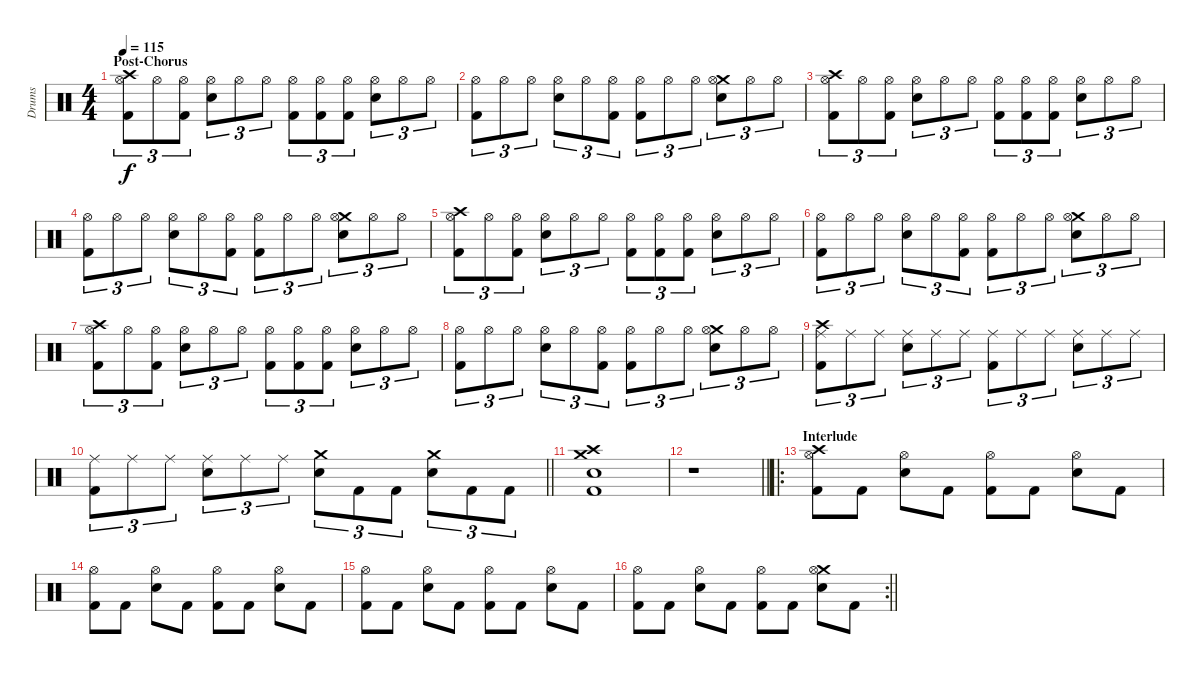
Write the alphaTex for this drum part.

\track ("Drums" "Drums") {instrument percussion}
\staff {score}
\articulation defaults
\ts (4 4)
\section ("" "Post-Chorus")
\tempo 115
\clef neutral
\ks c
("Crash high (hit)" "Hi-Hat (open)" "Kick (hit) 2").8{tu (3 2) dy f} "Hi-Hat (open)".8{tu (3 2)} ("Hi-Hat (open)" "Kick (hit) 2").8{tu (3 2)} ("Hi-Hat (open)" "Snare (hit) 2").8{tu (3 2)} "Hi-Hat (open)".8{tu (3 2)} "Hi-Hat (open)".8{tu (3 2)} ("Hi-Hat (open)" "Kick (hit) 2").8{tu (3 2)} ("Hi-Hat (open)" "Kick (hit) 2").8{tu (3 2)} ("Hi-Hat (open)" "Kick (hit) 2").8{tu (3 2)} ("Hi-Hat (open)" "Snare (hit) 2").8{tu (3 2)} "Hi-Hat (open)".8{tu (3 2)} "Hi-Hat (open)".8{tu (3 2)} |
("Hi-Hat (open)" "Kick (hit) 2").8{tu (3 2)} "Hi-Hat (open)".8{tu (3 2)} "Hi-Hat (open)".8{tu (3 2)} ("Hi-Hat (open)" "Snare (hit) 2").8{tu (3 2)} "Hi-Hat (open)".8{tu (3 2)} ("Hi-Hat (open)" "Kick (hit) 2").8{tu (3 2)} ("Hi-Hat (open)" "Kick (hit) 2").8{tu (3 2)} "Hi-Hat (open)".8{tu (3 2)} "Hi-Hat (open)".8{tu (3 2)} ("Crash medium (hit)" "Hi-Hat (open)" "Snare (hit) 2").8{tu (3 2)} "Hi-Hat (open)".8{tu (3 2)} "Hi-Hat (open)".8{tu (3 2)} |
("Crash high (hit)" "Hi-Hat (open)" "Kick (hit) 2").8{tu (3 2)} "Hi-Hat (open)".8{tu (3 2)} ("Hi-Hat (open)" "Kick (hit) 2").8{tu (3 2)} ("Hi-Hat (open)" "Snare (hit) 2").8{tu (3 2)} "Hi-Hat (open)".8{tu (3 2)} "Hi-Hat (open)".8{tu (3 2)} ("Hi-Hat (open)" "Kick (hit) 2").8{tu (3 2)} ("Hi-Hat (open)" "Kick (hit) 2").8{tu (3 2)} ("Hi-Hat (open)" "Kick (hit) 2").8{tu (3 2)} ("Hi-Hat (open)" "Snare (hit) 2").8{tu (3 2)} "Hi-Hat (open)".8{tu (3 2)} "Hi-Hat (open)".8{tu (3 2)} |
("Hi-Hat (open)" "Kick (hit) 2").8{tu (3 2)} "Hi-Hat (open)".8{tu (3 2)} "Hi-Hat (open)".8{tu (3 2)} ("Hi-Hat (open)" "Snare (hit) 2").8{tu (3 2)} "Hi-Hat (open)".8{tu (3 2)} ("Hi-Hat (open)" "Kick (hit) 2").8{tu (3 2)} ("Hi-Hat (open)" "Kick (hit) 2").8{tu (3 2)} "Hi-Hat (open)".8{tu (3 2)} "Hi-Hat (open)".8{tu (3 2)} ("Crash medium (hit)" "Hi-Hat (open)" "Snare (hit) 2").8{tu (3 2)} "Hi-Hat (open)".8{tu (3 2)} "Hi-Hat (open)".8{tu (3 2)} |
("Crash high (hit)" "Hi-Hat (open)" "Kick (hit) 2").8{tu (3 2)} "Hi-Hat (open)".8{tu (3 2)} ("Hi-Hat (open)" "Kick (hit) 2").8{tu (3 2)} ("Hi-Hat (open)" "Snare (hit) 2").8{tu (3 2)} "Hi-Hat (open)".8{tu (3 2)} "Hi-Hat (open)".8{tu (3 2)} ("Hi-Hat (open)" "Kick (hit) 2").8{tu (3 2)} ("Hi-Hat (open)" "Kick (hit) 2").8{tu (3 2)} ("Hi-Hat (open)" "Kick (hit) 2").8{tu (3 2)} ("Hi-Hat (open)" "Snare (hit) 2").8{tu (3 2)} "Hi-Hat (open)".8{tu (3 2)} "Hi-Hat (open)".8{tu (3 2)} |
("Hi-Hat (open)" "Kick (hit) 2").8{tu (3 2)} "Hi-Hat (open)".8{tu (3 2)} "Hi-Hat (open)".8{tu (3 2)} ("Hi-Hat (open)" "Snare (hit) 2").8{tu (3 2)} "Hi-Hat (open)".8{tu (3 2)} ("Hi-Hat (open)" "Kick (hit) 2").8{tu (3 2)} ("Hi-Hat (open)" "Kick (hit) 2").8{tu (3 2)} "Hi-Hat (open)".8{tu (3 2)} "Hi-Hat (open)".8{tu (3 2)} ("Crash medium (hit)" "Hi-Hat (open)" "Snare (hit) 2").8{tu (3 2)} "Hi-Hat (open)".8{tu (3 2)} "Hi-Hat (open)".8{tu (3 2)} |
("Crash high (hit)" "Hi-Hat (open)" "Kick (hit) 2").8{tu (3 2)} "Hi-Hat (open)".8{tu (3 2)} ("Hi-Hat (open)" "Kick (hit) 2").8{tu (3 2)} ("Hi-Hat (open)" "Snare (hit) 2").8{tu (3 2)} "Hi-Hat (open)".8{tu (3 2)} "Hi-Hat (open)".8{tu (3 2)} ("Hi-Hat (open)" "Kick (hit) 2").8{tu (3 2)} ("Hi-Hat (open)" "Kick (hit) 2").8{tu (3 2)} ("Hi-Hat (open)" "Kick (hit) 2").8{tu (3 2)} ("Hi-Hat (open)" "Snare (hit) 2").8{tu (3 2)} "Hi-Hat (open)".8{tu (3 2)} "Hi-Hat (open)".8{tu (3 2)} |
("Hi-Hat (open)" "Kick (hit) 2").8{tu (3 2)} "Hi-Hat (open)".8{tu (3 2)} "Hi-Hat (open)".8{tu (3 2)} ("Hi-Hat (open)" "Snare (hit) 2").8{tu (3 2)} "Hi-Hat (open)".8{tu (3 2)} ("Hi-Hat (open)" "Kick (hit) 2").8{tu (3 2)} ("Hi-Hat (open)" "Kick (hit) 2").8{tu (3 2)} "Hi-Hat (open)".8{tu (3 2)} "Hi-Hat (open)".8{tu (3 2)} ("Crash medium (hit)" "Hi-Hat (open)" "Snare (hit) 2").8{tu (3 2)} "Hi-Hat (open)".8{tu (3 2)} "Hi-Hat (open)".8{tu (3 2)} |
("Crash high (hit)" "Ride (middle)" "Kick (hit) 2").8{tu (3 2)} "Ride (middle)".8{tu (3 2)} "Ride (middle)".8{tu (3 2)} ("Ride (middle)" "Snare (hit) 2").8{tu (3 2)} "Ride (middle)".8{tu (3 2)} "Ride (middle)".8{tu (3 2)} ("Ride (middle)" "Kick (hit) 2").8{tu (3 2)} "Ride (middle)".8{tu (3 2)} "Ride (middle)".8{tu (3 2)} ("Ride (middle)" "Snare (hit) 2").8{tu (3 2)} "Ride (middle)".8{tu (3 2)} "Ride (middle)".8{tu (3 2)} |
\barLineRight lightlight
("Ride (middle)" "Kick (hit) 2").8{tu (3 2)} "Ride (middle)".8{tu (3 2)} "Ride (middle)".8{tu (3 2)} ("Ride (middle)" "Snare (hit) 2").8{tu (3 2)} "Ride (middle)".8{tu (3 2)} "Ride (middle)".8{tu (3 2)} ("Crash medium (hit)" "Snare (hit) 2").8{tu (3 2)} "Kick (hit) 2".8{tu (3 2)} "Kick (hit) 2".8{tu (3 2)} ("Crash medium (hit)" "Snare (hit) 2").8{tu (3 2)} "Kick (hit) 2".8{tu (3 2)} "Kick (hit) 2".8{tu (3 2)} |
("Crash medium (hit)" "Crash high (hit)" "Snare (hit) 2" "Kick (hit) 2").1 |
\barLineRight lightlight
r.1 |
\ro
\section ("" "Interlude")
("Crash high (hit)" "Hi-Hat (open)" "Kick (hit) 2").8 "Kick (hit) 2".8 ("Hi-Hat (open)" "Snare (hit) 2").8 "Kick (hit) 2".8 ("Hi-Hat (open)" "Kick (hit) 2").8 "Kick (hit) 2".8 ("Hi-Hat (open)" "Snare (hit) 2").8 "Kick (hit) 2".8 |
("Hi-Hat (open)" "Kick (hit) 2").8 "Kick (hit) 2".8 ("Hi-Hat (open)" "Snare (hit) 2").8 "Kick (hit) 2".8 ("Hi-Hat (open)" "Kick (hit) 2").8 "Kick (hit) 2".8 ("Hi-Hat (open)" "Snare (hit) 2").8 "Kick (hit) 2".8 |
("Hi-Hat (open)" "Kick (hit) 2").8 "Kick (hit) 2".8 ("Hi-Hat (open)" "Snare (hit) 2").8 "Kick (hit) 2".8 ("Hi-Hat (open)" "Kick (hit) 2").8 "Kick (hit) 2".8 ("Hi-Hat (open)" "Snare (hit) 2").8 "Kick (hit) 2".8 |
\rc 2
\barLineRight lightlight
("Hi-Hat (open)" "Kick (hit) 2").8 "Kick (hit) 2".8 ("Hi-Hat (open)" "Snare (hit) 2").8 "Kick (hit) 2".8 ("Hi-Hat (open)" "Kick (hit) 2").8 "Kick (hit) 2".8 ("Crash medium (hit)" "Hi-Hat (open)" "Snare (hit) 2").8 "Kick (hit) 2".8
